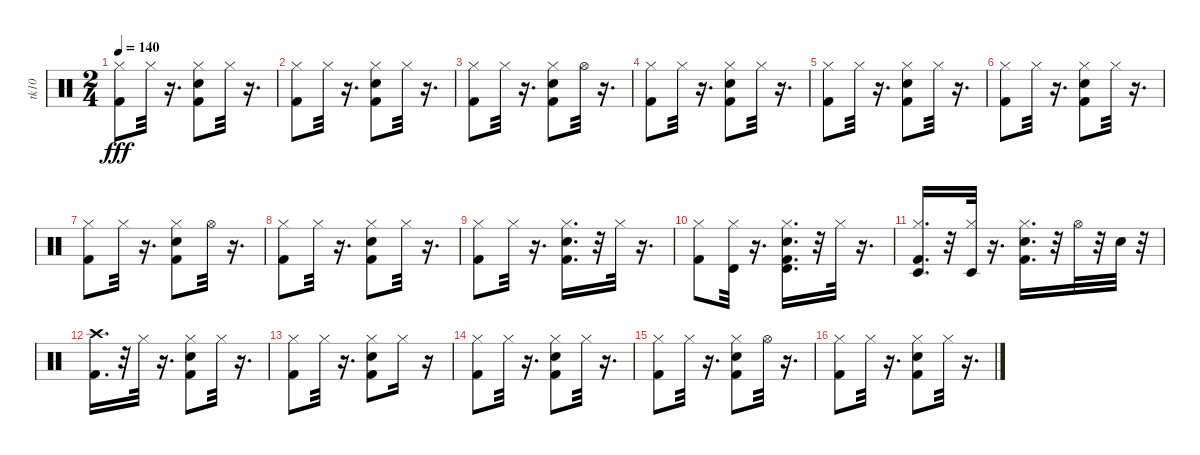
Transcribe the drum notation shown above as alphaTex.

\track ("tk10" "tk10") {instrument percussion}
\staff {score}
\articulation defaults
\ts (2 4)
\tempo 140
\clef neutral
\ks c
("Kick (hit) 2" "Hi-Hat (closed)").8{dy fff} "Hi-Hat (closed)".32 r.16{d} ("Snare (hit) 2" "Kick (hit) 2" "Hi-Hat (closed)").8 "Hi-Hat (closed)".32 r.16{d} |
("Kick (hit) 2" "Hi-Hat (closed)").8 "Hi-Hat (closed)".32 r.16{d} ("Snare (hit) 2" "Kick (hit) 2" "Hi-Hat (closed)").8 "Hi-Hat (closed)".32 r.16{d} |
("Kick (hit) 2" "Hi-Hat (closed)").8 "Hi-Hat (closed)".32 r.16{d} ("Kick (hit) 2" "Snare (hit) 2" "Hi-Hat (closed)").8 "Hi-Hat (open)".32 r.16{d} |
("Kick (hit) 2" "Hi-Hat (closed)").8 "Hi-Hat (closed)".32 r.16{d} ("Snare (hit) 2" "Kick (hit) 2" "Hi-Hat (closed)").8 "Hi-Hat (closed)".32 r.16{d} |
("Kick (hit) 2" "Hi-Hat (closed)").8 "Hi-Hat (closed)".32 r.16{d} ("Snare (hit) 2" "Kick (hit) 2" "Hi-Hat (closed)").8 "Hi-Hat (closed)".32 r.16{d} |
("Kick (hit) 2" "Hi-Hat (closed)").8 "Hi-Hat (closed)".32 r.16{d} ("Snare (hit) 2" "Kick (hit) 2" "Hi-Hat (closed)").8 "Hi-Hat (closed)".32 r.16{d} |
("Kick (hit) 2" "Hi-Hat (closed)").8 "Hi-Hat (closed)".32 r.16{d} ("Snare (hit) 2" "Kick (hit) 2" "Hi-Hat (closed)").8 "Hi-Hat (open)".32 r.16{d} |
("Kick (hit) 2" "Hi-Hat (closed)").8 "Hi-Hat (closed)".32 r.16{d} ("Snare (hit) 2" "Kick (hit) 2" "Hi-Hat (closed)").8 "Hi-Hat (closed)".32 r.16{d} |
("Kick (hit) 2" "Hi-Hat (closed)").8 "Hi-Hat (closed)".32 r.16{d} ("Snare (hit) 2" "Kick (hit) 2" "Hi-Hat (closed)").16{d} r.32 "Hi-Hat (closed)".32 r.16{d} |
("Kick (hit) 2" "Hi-Hat (closed)").8 ("Timbale high (hit)" "Hi-Hat (closed)").32 r.16{d} ("Kick (hit) 2" "Hi-Hat (closed)" "Timbale high (hit)" "Snare (hit) 2").16{d} r.32 "Hi-Hat (closed)".32 r.16{d} |
("Hi-Hat (closed)" "Kick (hit) 2" "Timbale low (hit)").16{d} r.32 ("Timbale low (hit)" "Hi-Hat (closed)").32 r.16{d} ("Hi-Hat (closed)" "Snare (hit) 2" "Kick (hit) 2").16{d} r.32 "Hi-Hat (open)".32 r.32 "Snare (hit) 2".32 r.32 |
("Kick (hit) 2" "Crash high (hit)").16{d} r.32 "Hi-Hat (closed)".32 r.16{d} ("Kick (hit) 2" "Snare (hit) 2" "Hi-Hat (closed)").8 "Hi-Hat (closed)".32 r.16{d} |
("Kick (hit) 2" "Hi-Hat (closed)").8 "Hi-Hat (closed)".32 r.16{d} ("Hi-Hat (closed)" "Snare (hit) 2" "Kick (hit) 2").8 "Hi-Hat (closed)".16 r.16 |
("Kick (hit) 2" "Hi-Hat (closed)").8 "Hi-Hat (closed)".32 r.16{d} ("Snare (hit) 2" "Kick (hit) 2" "Hi-Hat (closed)").8 "Hi-Hat (closed)".32 r.16{d} |
("Kick (hit) 2" "Hi-Hat (closed)").8 "Hi-Hat (closed)".32 r.16{d} ("Kick (hit) 2" "Snare (hit) 2" "Hi-Hat (closed)").8 "Hi-Hat (open)".32 r.16{d} |
("Kick (hit) 2" "Hi-Hat (closed)").8 "Hi-Hat (closed)".32 r.16{d} ("Kick (hit) 2" "Hi-Hat (closed)" "Snare (hit) 2").8 "Hi-Hat (closed)".32 r.16{d}
